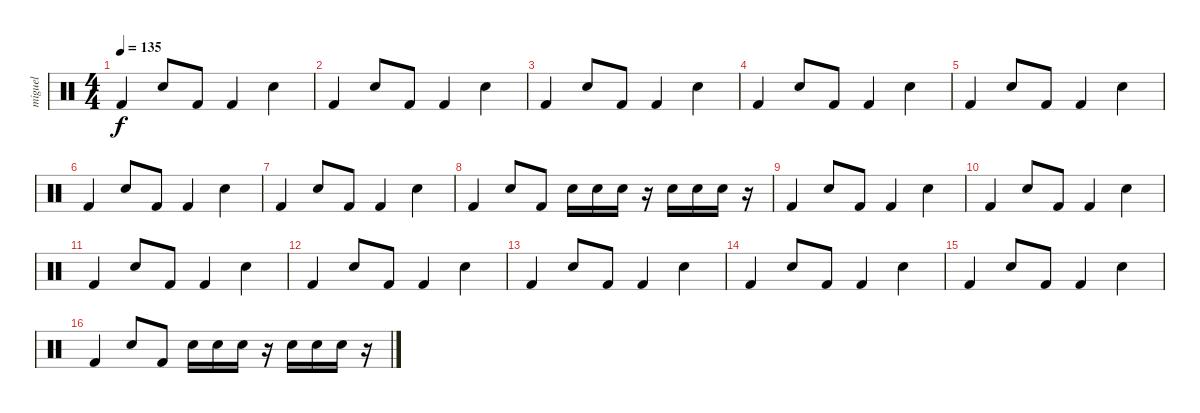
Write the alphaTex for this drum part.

\track ("miguel" "miguel") {instrument percussion}
\staff {score}
\articulation defaults
\ts (4 4)
\tempo 135
\clef neutral
\ks c "Kick (hit) 2".4{dy f} "Snare (hit) 2".8 "Kick (hit) 2".8 "Kick (hit) 2".4 "Snare (hit) 2".4
|
"Kick (hit) 2".4 "Snare (hit) 2".8 "Kick (hit) 2".8 "Kick (hit) 2".4 "Snare (hit) 2".4 |
"Kick (hit) 2".4 "Snare (hit) 2".8 "Kick (hit) 2".8 "Kick (hit) 2".4 "Snare (hit) 2".4 |
"Kick (hit) 2".4 "Snare (hit) 2".8 "Kick (hit) 2".8 "Kick (hit) 2".4 "Snare (hit) 2".4 |
"Kick (hit) 2".4 "Snare (hit) 2".8 "Kick (hit) 2".8 "Kick (hit) 2".4 "Snare (hit) 2".4 |
"Kick (hit) 2".4 "Snare (hit) 2".8 "Kick (hit) 2".8 "Kick (hit) 2".4 "Snare (hit) 2".4 |
"Kick (hit) 2".4 "Snare (hit) 2".8 "Kick (hit) 2".8 "Kick (hit) 2".4 "Snare (hit) 2".4 |
"Kick (hit) 2".4 "Snare (hit) 2".8 "Kick (hit) 2".8 "Snare (hit) 2".16 "Snare (hit) 2".16 "Snare (hit) 2".16 r.16 "Snare (hit) 2".16 "Snare (hit) 2".16 "Snare (hit) 2".16 r.16 |
"Kick (hit) 2".4 "Snare (hit) 2".8 "Kick (hit) 2".8 "Kick (hit) 2".4 "Snare (hit) 2".4 |
"Kick (hit) 2".4 "Snare (hit) 2".8 "Kick (hit) 2".8 "Kick (hit) 2".4 "Snare (hit) 2".4 |
"Kick (hit) 2".4 "Snare (hit) 2".8 "Kick (hit) 2".8 "Kick (hit) 2".4 "Snare (hit) 2".4 |
"Kick (hit) 2".4 "Snare (hit) 2".8 "Kick (hit) 2".8 "Kick (hit) 2".4 "Snare (hit) 2".4 |
"Kick (hit) 2".4 "Snare (hit) 2".8 "Kick (hit) 2".8 "Kick (hit) 2".4 "Snare (hit) 2".4 |
"Kick (hit) 2".4 "Snare (hit) 2".8 "Kick (hit) 2".8 "Kick (hit) 2".4 "Snare (hit) 2".4 |
"Kick (hit) 2".4 "Snare (hit) 2".8 "Kick (hit) 2".8 "Kick (hit) 2".4 "Snare (hit) 2".4 |
"Kick (hit) 2".4 "Snare (hit) 2".8 "Kick (hit) 2".8 "Snare (hit) 2".16 "Snare (hit) 2".16 "Snare (hit) 2".16 r.16 "Snare (hit) 2".16 "Snare (hit) 2".16 "Snare (hit) 2".16 r.16
